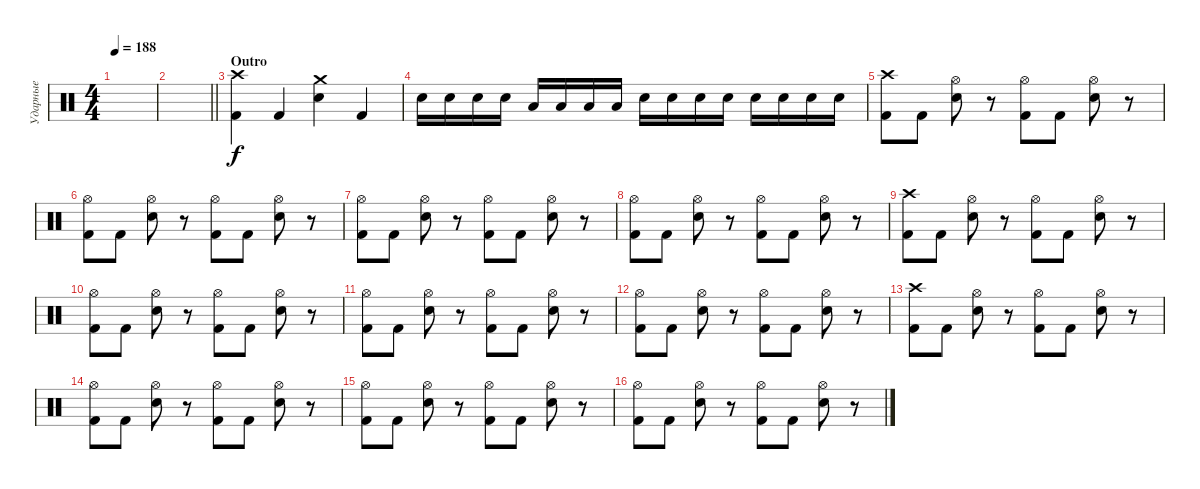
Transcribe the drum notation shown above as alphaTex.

\track ("Ударные" "Ударные") {instrument percussion}
\staff {score}
\articulation defaults
\ts (4 4)
\tempo 188
\clef neutral
\ks c
|
\barLineRight lightlight
|
\section ("" "Outro")
("Crash high (hit)" "Kick (hit) 2").4{dy f} "Kick (hit) 2".4 ("Crash medium (hit)" "Electric Snare (hit)").4 "Kick (hit) 2".4 |
"Electric Snare (hit)".16 "Electric Snare (hit)".16 "Electric Snare (hit)".16 "Electric Snare (hit)".16 "Low Tom (hit)".16 "Low Tom (hit)".16 "Low Tom (hit)".16 "Low Tom (hit)".16 "Electric Snare (hit)".16 "Electric Snare (hit)".16 "Electric Snare (hit)".16 "Electric Snare (hit)".16 "Electric Snare (hit)".16 "Electric Snare (hit)".16 "Electric Snare (hit)".16 "Electric Snare (hit)".16 |
("Crash high (hit)" "Kick (hit) 2").8 "Kick (hit) 2".8 ("Hi-Hat (open)" "Electric Snare (hit)").8 r.8 ("Hi-Hat (open)" "Kick (hit) 2").8 "Kick (hit) 2".8 ("Hi-Hat (open)" "Electric Snare (hit)").8 r.8 |
("Hi-Hat (open)" "Kick (hit) 2").8 "Kick (hit) 2".8 ("Hi-Hat (open)" "Electric Snare (hit)").8 r.8 ("Hi-Hat (open)" "Kick (hit) 2").8 "Kick (hit) 2".8 ("Hi-Hat (open)" "Electric Snare (hit)").8 r.8 |
("Hi-Hat (open)" "Kick (hit) 2").8 "Kick (hit) 2".8 ("Hi-Hat (open)" "Electric Snare (hit)").8 r.8 ("Hi-Hat (open)" "Kick (hit) 2").8 "Kick (hit) 2".8 ("Hi-Hat (open)" "Electric Snare (hit)").8 r.8 |
("Hi-Hat (open)" "Kick (hit) 2").8 "Kick (hit) 2".8 ("Hi-Hat (open)" "Electric Snare (hit)").8 r.8 ("Hi-Hat (open)" "Kick (hit) 2").8 "Kick (hit) 2".8 ("Hi-Hat (open)" "Electric Snare (hit)").8 r.8 |
("Crash high (hit)" "Kick (hit) 2").8 "Kick (hit) 2".8 ("Hi-Hat (open)" "Electric Snare (hit)").8 r.8 ("Hi-Hat (open)" "Kick (hit) 2").8 "Kick (hit) 2".8 ("Hi-Hat (open)" "Electric Snare (hit)").8 r.8 |
("Hi-Hat (open)" "Kick (hit) 2").8 "Kick (hit) 2".8 ("Hi-Hat (open)" "Electric Snare (hit)").8 r.8 ("Hi-Hat (open)" "Kick (hit) 2").8 "Kick (hit) 2".8 ("Hi-Hat (open)" "Electric Snare (hit)").8 r.8 |
("Hi-Hat (open)" "Kick (hit) 2").8 "Kick (hit) 2".8 ("Hi-Hat (open)" "Electric Snare (hit)").8 r.8 ("Hi-Hat (open)" "Kick (hit) 2").8 "Kick (hit) 2".8 ("Hi-Hat (open)" "Electric Snare (hit)").8 r.8 |
("Hi-Hat (open)" "Kick (hit) 2").8 "Kick (hit) 2".8 ("Hi-Hat (open)" "Electric Snare (hit)").8 r.8 ("Hi-Hat (open)" "Kick (hit) 2").8 "Kick (hit) 2".8 ("Hi-Hat (open)" "Electric Snare (hit)").8 r.8 |
("Crash high (hit)" "Kick (hit) 2").8 "Kick (hit) 2".8 ("Hi-Hat (open)" "Electric Snare (hit)").8 r.8 ("Hi-Hat (open)" "Kick (hit) 2").8 "Kick (hit) 2".8 ("Hi-Hat (open)" "Electric Snare (hit)").8 r.8 |
("Hi-Hat (open)" "Kick (hit) 2").8 "Kick (hit) 2".8 ("Hi-Hat (open)" "Electric Snare (hit)").8 r.8 ("Hi-Hat (open)" "Kick (hit) 2").8 "Kick (hit) 2".8 ("Hi-Hat (open)" "Electric Snare (hit)").8 r.8 |
("Hi-Hat (open)" "Kick (hit) 2").8 "Kick (hit) 2".8 ("Hi-Hat (open)" "Electric Snare (hit)").8 r.8 ("Hi-Hat (open)" "Kick (hit) 2").8 "Kick (hit) 2".8 ("Hi-Hat (open)" "Electric Snare (hit)").8 r.8 |
("Hi-Hat (open)" "Kick (hit) 2").8 "Kick (hit) 2".8 ("Hi-Hat (open)" "Electric Snare (hit)").8 r.8 ("Hi-Hat (open)" "Kick (hit) 2").8 "Kick (hit) 2".8 ("Hi-Hat (open)" "Electric Snare (hit)").8 r.8
